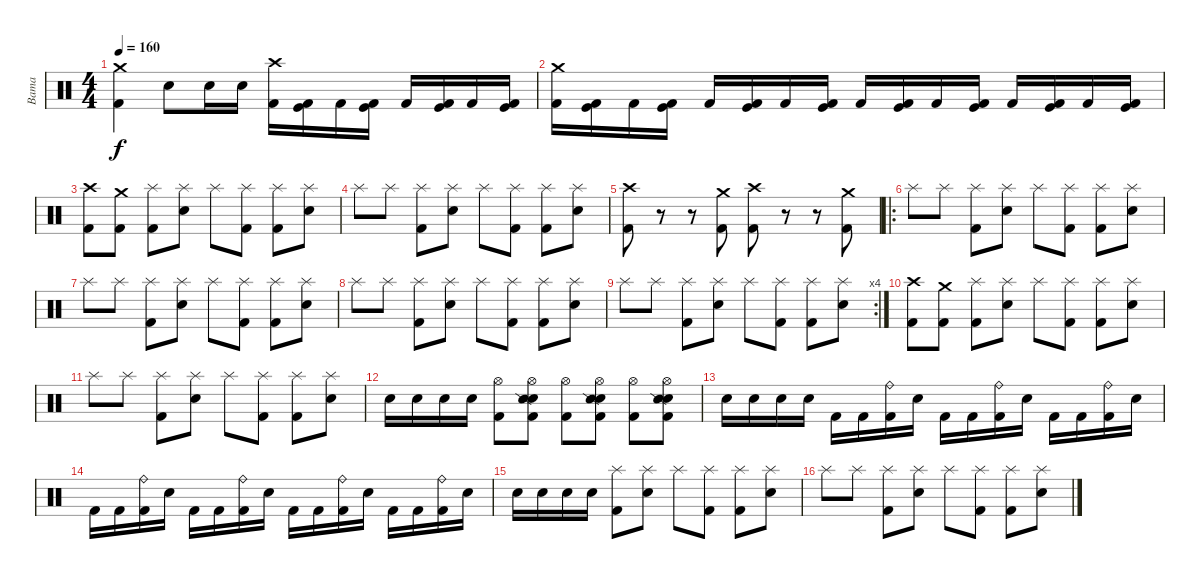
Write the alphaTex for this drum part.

\track ("Bama" "Bama") {instrument percussion}
\staff {score}
\articulation defaults
\ts (4 4)
\tempo 160
\clef neutral
\ks c
("Crash medium (hit)" "Kick (hit) 2").4{dy f} "Electric Snare (hit)".8 "Electric Snare (hit)".16 "Electric Snare (hit)".16 ("Crash high (hit)" "Kick (hit) 2").16 ("Kick (hit)" "Kick (hit) 2").16 "Kick (hit) 2".16 ("Kick (hit)" "Kick (hit) 2").16 "Kick (hit) 2".16 ("Kick (hit)" "Kick (hit) 2").16 "Kick (hit) 2".16 ("Kick (hit)" "Kick (hit) 2").16 |
("Crash medium (hit)" "Kick (hit) 2").16 ("Kick (hit)" "Kick (hit) 2").16 "Kick (hit) 2".16 ("Kick (hit)" "Kick (hit) 2").16 "Kick (hit) 2".16 ("Kick (hit)" "Kick (hit) 2").16 "Kick (hit) 2".16 ("Kick (hit)" "Kick (hit) 2").16 "Kick (hit) 2".16 ("Kick (hit)" "Kick (hit) 2").16 "Kick (hit) 2".16 ("Kick (hit)" "Kick (hit) 2").16 "Kick (hit) 2".16 ("Kick (hit)" "Kick (hit) 2").16 "Kick (hit) 2".16 ("Kick (hit)" "Kick (hit) 2").16 |
("Crash high (hit)" "Kick (hit) 2").8 ("Crash medium (hit)" "Kick (hit) 2").8 ("Splash (hit)" "Kick (hit) 2").8 ("Splash (hit)" "Electric Snare (hit)").8 "Splash (hit)".8 ("Splash (hit)" "Kick (hit) 2").8 ("Splash (hit)" "Kick (hit) 2").8 ("Splash (hit)" "Electric Snare (hit)").8 |
"Splash (hit)".8 "Splash (hit)".8 ("Splash (hit)" "Kick (hit) 2").8 ("Splash (hit)" "Electric Snare (hit)").8 "Splash (hit)".8 ("Splash (hit)" "Kick (hit) 2").8 ("Splash (hit)" "Kick (hit) 2").8 ("Splash (hit)" "Electric Snare (hit)").8 |
("Crash high (hit)" "Kick (hit) 2").8 r.8 r.8 ("Crash medium (hit)" "Kick (hit) 2").8 ("Crash high (hit)" "Kick (hit) 2").8 r.8 r.8 ("Crash medium (hit)" "Kick (hit) 2").8 |
\ro "Splash (hit)".8 "Splash (hit)".8
("Splash (hit)" "Kick (hit) 2").8 ("Splash (hit)" "Electric Snare (hit)").8 "Splash (hit)".8 ("Splash (hit)" "Kick (hit) 2").8 ("Splash (hit)" "Kick (hit) 2").8 ("Splash (hit)" "Electric Snare (hit)").8 |
"Splash (hit)".8 "Splash (hit)".8 ("Splash (hit)" "Kick (hit) 2").8 ("Splash (hit)" "Electric Snare (hit)").8 "Splash (hit)".8 ("Splash (hit)" "Kick (hit) 2").8 ("Splash (hit)" "Kick (hit) 2").8 ("Splash (hit)" "Electric Snare (hit)").8 |
"Splash (hit)".8 "Splash (hit)".8 ("Splash (hit)" "Kick (hit) 2").8 ("Splash (hit)" "Electric Snare (hit)").8 "Splash (hit)".8 ("Splash (hit)" "Kick (hit) 2").8 ("Splash (hit)" "Kick (hit) 2").8 ("Splash (hit)" "Electric Snare (hit)").8 |
\rc 4 "Splash (hit)".8 "Splash (hit)".8
("Splash (hit)" "Kick (hit) 2").8 ("Splash (hit)" "Electric Snare (hit)").8 "Splash (hit)".8 ("Splash (hit)" "Kick (hit) 2").8 ("Splash (hit)" "Kick (hit) 2").8 ("Splash (hit)" "Electric Snare (hit)").8 |
("Crash high (hit)" "Kick (hit) 2").8 ("Crash medium (hit)" "Kick (hit) 2").8 ("Splash (hit)" "Kick (hit) 2").8 ("Splash (hit)" "Electric Snare (hit)").8 "Splash (hit)".8 ("Splash (hit)" "Kick (hit) 2").8 ("Splash (hit)" "Kick (hit) 2").8 ("Splash (hit)" "Electric Snare (hit)").8 |
"Splash (hit)".8 "Splash (hit)".8 ("Splash (hit)" "Kick (hit) 2").8 ("Splash (hit)" "Electric Snare (hit)").8 "Splash (hit)".8 ("Splash (hit)" "Kick (hit) 2").8 ("Splash (hit)" "Kick (hit) 2").8 ("Splash (hit)" "Electric Snare (hit)").8 |
"Electric Snare (hit)".16 "Electric Snare (hit)".16 "Electric Snare (hit)".16 "Electric Snare (hit)".16 ("Hi-Hat (open)" "Kick (hit) 2").8 ("Hi-Hat (open)" "Electric Snare (hit)" "Snare (side stick) 2" "Kick (hit) 2").8 ("Hi-Hat (open)" "Kick (hit) 2").8 ("Hi-Hat (open)" "Electric Snare (hit)" "Snare (side stick) 2" "Kick (hit) 2").8 ("Hi-Hat (open)" "Kick (hit) 2").8 ("Hi-Hat (open)" "Electric Snare (hit)" "Snare (side stick) 2" "Kick (hit) 2").8 |
"Electric Snare (hit)".16 "Electric Snare (hit)".16 "Electric Snare (hit)".16 "Electric Snare (hit)".16 "Kick (hit) 2".16 "Kick (hit) 2".16 ("Ride (bell)" "Kick (hit) 2").16 "Electric Snare (hit)".16 "Kick (hit) 2".16 "Kick (hit) 2".16 ("Ride (bell)" "Kick (hit) 2").16 "Electric Snare (hit)".16 "Kick (hit) 2".16 "Kick (hit) 2".16 ("Ride (bell)" "Kick (hit) 2").16 "Electric Snare (hit)".16 |
"Kick (hit) 2".16 "Kick (hit) 2".16 ("Ride (bell)" "Kick (hit) 2").16 "Electric Snare (hit)".16 "Kick (hit) 2".16 "Kick (hit) 2".16 ("Ride (bell)" "Kick (hit) 2").16 "Electric Snare (hit)".16 "Kick (hit) 2".16 "Kick (hit) 2".16 ("Ride (bell)" "Kick (hit) 2").16 "Electric Snare (hit)".16 "Kick (hit) 2".16 "Kick (hit) 2".16 ("Ride (bell)" "Kick (hit) 2").16 "Electric Snare (hit)".16 |
"Electric Snare (hit)".16 "Electric Snare (hit)".16 "Electric Snare (hit)".16 "Electric Snare (hit)".16 ("Splash (hit)" "Kick (hit) 2").8 ("Splash (hit)" "Electric Snare (hit)").8 "Splash (hit)".8 ("Splash (hit)" "Kick (hit) 2").8 ("Splash (hit)" "Kick (hit) 2").8 ("Splash (hit)" "Electric Snare (hit)").8 |
"Splash (hit)".8 "Splash (hit)".8 ("Splash (hit)" "Kick (hit) 2").8 ("Splash (hit)" "Electric Snare (hit)").8 "Splash (hit)".8 ("Splash (hit)" "Kick (hit) 2").8 ("Splash (hit)" "Kick (hit) 2").8 ("Splash (hit)" "Electric Snare (hit)").8
